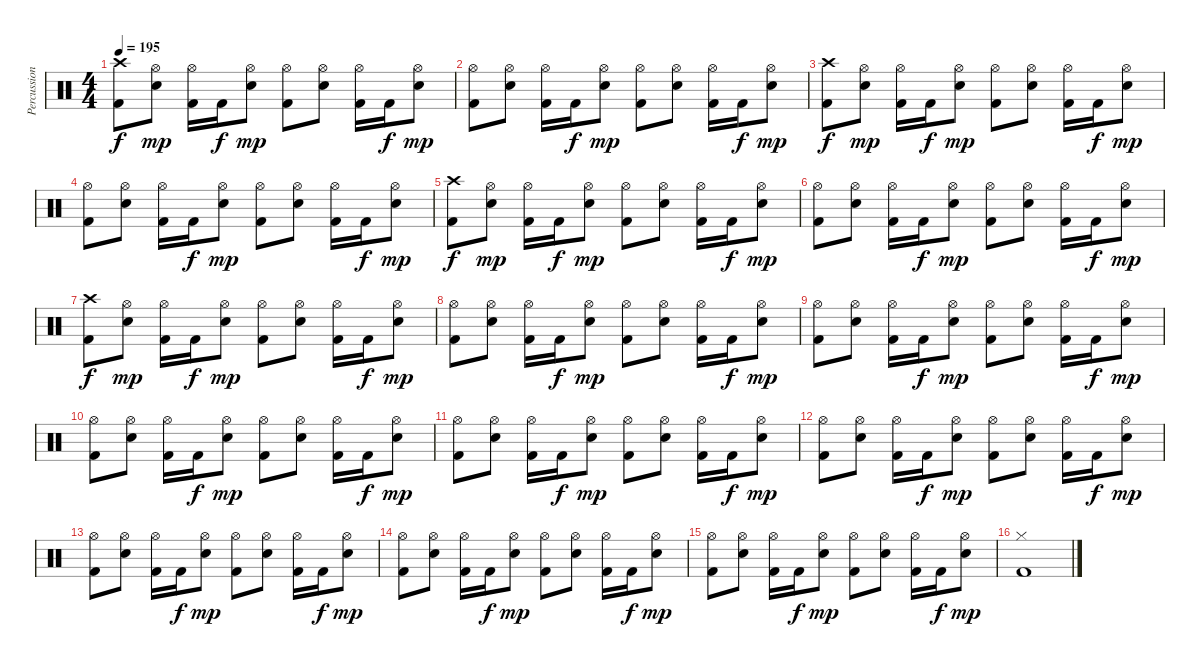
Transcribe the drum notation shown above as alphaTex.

\track ("Percussions" "Percussion") {instrument percussion}
\staff {score}
\articulation defaults
\ts (4 4)
\tempo 195
\clef neutral
\ks c
("Crash high (hit)" "Kick (hit) 2").8{dy f} ("Hi-Hat (open)" "Snare (hit) 2").8{dy mp} ("Hi-Hat (open)" "Kick (hit) 2").16 "Kick (hit) 2".16{dy f} ("Hi-Hat (open)" "Snare (hit) 2").8{dy mp} ("Hi-Hat (open)" "Kick (hit) 2").8 ("Hi-Hat (open)" "Snare (hit) 2").8 ("Hi-Hat (open)" "Kick (hit) 2").16 "Kick (hit) 2".16{dy f} ("Hi-Hat (open)" "Snare (hit) 2").8{dy mp} |
("Hi-Hat (open)" "Kick (hit) 2").8 ("Hi-Hat (open)" "Snare (hit) 2").8 ("Hi-Hat (open)" "Kick (hit) 2").16 "Kick (hit) 2".16{dy f} ("Hi-Hat (open)" "Snare (hit) 2").8{dy mp} ("Hi-Hat (open)" "Kick (hit) 2").8 ("Hi-Hat (open)" "Snare (hit) 2").8 ("Hi-Hat (open)" "Kick (hit) 2").16 "Kick (hit) 2".16{dy f} ("Hi-Hat (open)" "Snare (hit) 2").8{dy mp} |
("Crash high (hit)" "Kick (hit) 2").8{dy f} ("Hi-Hat (open)" "Snare (hit) 2").8{dy mp} ("Hi-Hat (open)" "Kick (hit) 2").16 "Kick (hit) 2".16{dy f} ("Hi-Hat (open)" "Snare (hit) 2").8{dy mp} ("Hi-Hat (open)" "Kick (hit) 2").8 ("Hi-Hat (open)" "Snare (hit) 2").8 ("Hi-Hat (open)" "Kick (hit) 2").16 "Kick (hit) 2".16{dy f} ("Hi-Hat (open)" "Snare (hit) 2").8{dy mp} |
("Hi-Hat (open)" "Kick (hit) 2").8 ("Hi-Hat (open)" "Snare (hit) 2").8 ("Hi-Hat (open)" "Kick (hit) 2").16 "Kick (hit) 2".16{dy f} ("Hi-Hat (open)" "Snare (hit) 2").8{dy mp} ("Hi-Hat (open)" "Kick (hit) 2").8 ("Hi-Hat (open)" "Snare (hit) 2").8 ("Hi-Hat (open)" "Kick (hit) 2").16 "Kick (hit) 2".16{dy f} ("Hi-Hat (open)" "Snare (hit) 2").8{dy mp} |
("Crash high (hit)" "Kick (hit) 2").8{dy f} ("Hi-Hat (open)" "Snare (hit) 2").8{dy mp} ("Hi-Hat (open)" "Kick (hit) 2").16 "Kick (hit) 2".16{dy f} ("Hi-Hat (open)" "Snare (hit) 2").8{dy mp} ("Hi-Hat (open)" "Kick (hit) 2").8 ("Hi-Hat (open)" "Snare (hit) 2").8 ("Hi-Hat (open)" "Kick (hit) 2").16 "Kick (hit) 2".16{dy f} ("Hi-Hat (open)" "Snare (hit) 2").8{dy mp} |
("Hi-Hat (open)" "Kick (hit) 2").8 ("Hi-Hat (open)" "Snare (hit) 2").8 ("Hi-Hat (open)" "Kick (hit) 2").16 "Kick (hit) 2".16{dy f} ("Hi-Hat (open)" "Snare (hit) 2").8{dy mp} ("Hi-Hat (open)" "Kick (hit) 2").8 ("Hi-Hat (open)" "Snare (hit) 2").8 ("Hi-Hat (open)" "Kick (hit) 2").16 "Kick (hit) 2".16{dy f} ("Hi-Hat (open)" "Snare (hit) 2").8{dy mp} |
("Crash high (hit)" "Kick (hit) 2").8{dy f} ("Hi-Hat (open)" "Snare (hit) 2").8{dy mp} ("Hi-Hat (open)" "Kick (hit) 2").16 "Kick (hit) 2".16{dy f} ("Hi-Hat (open)" "Snare (hit) 2").8{dy mp} ("Hi-Hat (open)" "Kick (hit) 2").8 ("Hi-Hat (open)" "Snare (hit) 2").8 ("Hi-Hat (open)" "Kick (hit) 2").16 "Kick (hit) 2".16{dy f} ("Hi-Hat (open)" "Snare (hit) 2").8{dy mp} |
("Hi-Hat (open)" "Kick (hit) 2").8 ("Hi-Hat (open)" "Snare (hit) 2").8 ("Hi-Hat (open)" "Kick (hit) 2").16 "Kick (hit) 2".16{dy f} ("Hi-Hat (open)" "Snare (hit) 2").8{dy mp} ("Hi-Hat (open)" "Kick (hit) 2").8 ("Hi-Hat (open)" "Snare (hit) 2").8 ("Hi-Hat (open)" "Kick (hit) 2").16 "Kick (hit) 2".16{dy f} ("Hi-Hat (open)" "Snare (hit) 2").8{dy mp} |
("Hi-Hat (open)" "Kick (hit) 2").8 ("Hi-Hat (open)" "Snare (hit) 2").8 ("Hi-Hat (open)" "Kick (hit) 2").16 "Kick (hit) 2".16{dy f} ("Hi-Hat (open)" "Snare (hit) 2").8{dy mp} ("Hi-Hat (open)" "Kick (hit) 2").8 ("Hi-Hat (open)" "Snare (hit) 2").8 ("Hi-Hat (open)" "Kick (hit) 2").16 "Kick (hit) 2".16{dy f} ("Hi-Hat (open)" "Snare (hit) 2").8{dy mp} |
("Hi-Hat (open)" "Kick (hit) 2").8 ("Hi-Hat (open)" "Snare (hit) 2").8 ("Hi-Hat (open)" "Kick (hit) 2").16 "Kick (hit) 2".16{dy f} ("Hi-Hat (open)" "Snare (hit) 2").8{dy mp} ("Hi-Hat (open)" "Kick (hit) 2").8 ("Hi-Hat (open)" "Snare (hit) 2").8 ("Hi-Hat (open)" "Kick (hit) 2").16 "Kick (hit) 2".16{dy f} ("Hi-Hat (open)" "Snare (hit) 2").8{dy mp} |
("Hi-Hat (open)" "Kick (hit) 2").8 ("Hi-Hat (open)" "Snare (hit) 2").8 ("Hi-Hat (open)" "Kick (hit) 2").16 "Kick (hit) 2".16{dy f} ("Hi-Hat (open)" "Snare (hit) 2").8{dy mp} ("Hi-Hat (open)" "Kick (hit) 2").8 ("Hi-Hat (open)" "Snare (hit) 2").8 ("Hi-Hat (open)" "Kick (hit) 2").16 "Kick (hit) 2".16{dy f} ("Hi-Hat (open)" "Snare (hit) 2").8{dy mp} |
("Hi-Hat (open)" "Kick (hit) 2").8 ("Hi-Hat (open)" "Snare (hit) 2").8 ("Hi-Hat (open)" "Kick (hit) 2").16 "Kick (hit) 2".16{dy f} ("Hi-Hat (open)" "Snare (hit) 2").8{dy mp} ("Hi-Hat (open)" "Kick (hit) 2").8 ("Hi-Hat (open)" "Snare (hit) 2").8 ("Hi-Hat (open)" "Kick (hit) 2").16 "Kick (hit) 2".16{dy f} ("Hi-Hat (open)" "Snare (hit) 2").8{dy mp} |
("Hi-Hat (open)" "Kick (hit) 2").8 ("Hi-Hat (open)" "Snare (hit) 2").8 ("Hi-Hat (open)" "Kick (hit) 2").16 "Kick (hit) 2".16{dy f} ("Hi-Hat (open)" "Snare (hit) 2").8{dy mp} ("Hi-Hat (open)" "Kick (hit) 2").8 ("Hi-Hat (open)" "Snare (hit) 2").8 ("Hi-Hat (open)" "Kick (hit) 2").16 "Kick (hit) 2".16{dy f} ("Hi-Hat (open)" "Snare (hit) 2").8{dy mp} |
("Hi-Hat (open)" "Kick (hit) 2").8 ("Hi-Hat (open)" "Snare (hit) 2").8 ("Hi-Hat (open)" "Kick (hit) 2").16 "Kick (hit) 2".16{dy f} ("Hi-Hat (open)" "Snare (hit) 2").8{dy mp} ("Hi-Hat (open)" "Kick (hit) 2").8 ("Hi-Hat (open)" "Snare (hit) 2").8 ("Hi-Hat (open)" "Kick (hit) 2").16 "Kick (hit) 2".16{dy f} ("Hi-Hat (open)" "Snare (hit) 2").8{dy mp} |
("Hi-Hat (open)" "Kick (hit) 2").8 ("Hi-Hat (open)" "Snare (hit) 2").8 ("Hi-Hat (open)" "Kick (hit) 2").16 "Kick (hit) 2".16{dy f} ("Hi-Hat (open)" "Snare (hit) 2").8{dy mp} ("Hi-Hat (open)" "Kick (hit) 2").8 ("Hi-Hat (open)" "Snare (hit) 2").8 ("Hi-Hat (open)" "Kick (hit) 2").16 "Kick (hit) 2".16{dy f} ("Hi-Hat (open)" "Snare (hit) 2").8{dy mp} |
("Hi-Hat (closed)" "Kick (hit) 2").1
